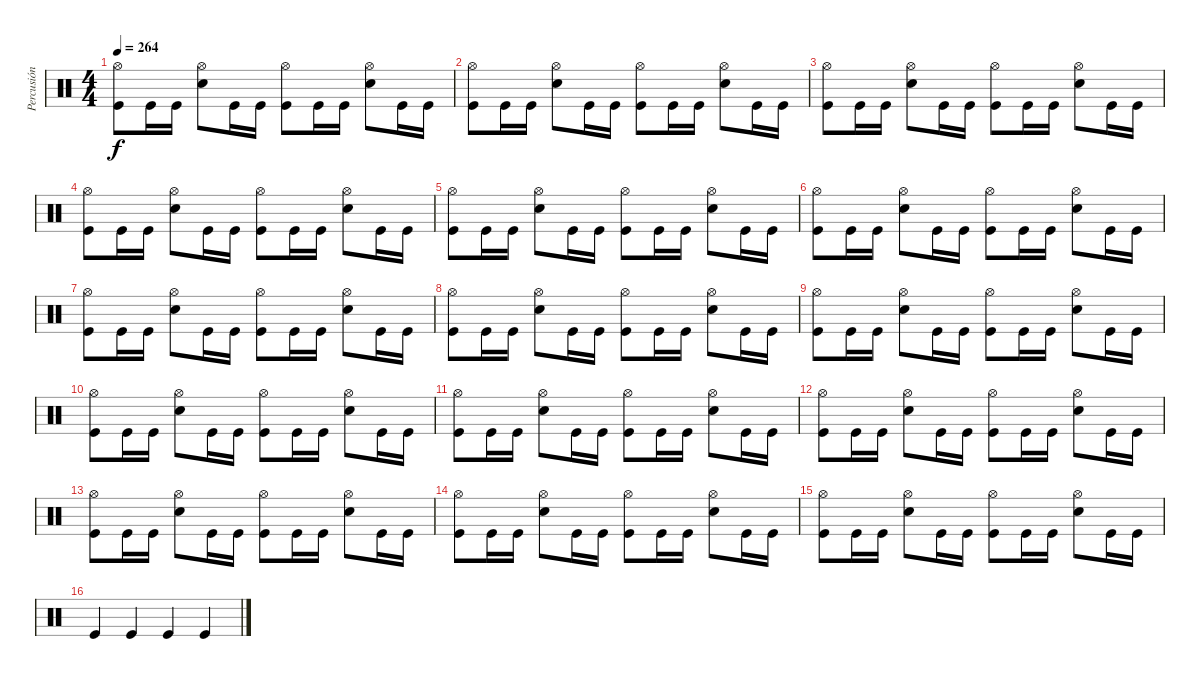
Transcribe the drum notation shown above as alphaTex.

\track ("Percusión" "Percusión") {instrument percussion}
\staff {score}
\articulation defaults
\ts (4 4)
\tempo 264
\clef neutral
\ks c
("Hi-Hat (open)" "Kick (hit)").8{dy f} "Kick (hit)".16 "Kick (hit)".16 ("Hi-Hat (open)" "Snare (hit) 2").8 "Kick (hit)".16 "Kick (hit)".16 ("Hi-Hat (open)" "Kick (hit)").8 "Kick (hit)".16 "Kick (hit)".16 ("Hi-Hat (open)" "Snare (hit) 2").8 "Kick (hit)".16 "Kick (hit)".16 |
("Hi-Hat (open)" "Kick (hit)").8 "Kick (hit)".16 "Kick (hit)".16 ("Hi-Hat (open)" "Snare (hit) 2").8 "Kick (hit)".16 "Kick (hit)".16 ("Hi-Hat (open)" "Kick (hit)").8 "Kick (hit)".16 "Kick (hit)".16 ("Hi-Hat (open)" "Snare (hit) 2").8 "Kick (hit)".16 "Kick (hit)".16 |
("Hi-Hat (open)" "Kick (hit)").8 "Kick (hit)".16 "Kick (hit)".16 ("Hi-Hat (open)" "Snare (hit) 2").8 "Kick (hit)".16 "Kick (hit)".16 ("Hi-Hat (open)" "Kick (hit)").8 "Kick (hit)".16 "Kick (hit)".16 ("Hi-Hat (open)" "Snare (hit) 2").8 "Kick (hit)".16 "Kick (hit)".16 |
("Hi-Hat (open)" "Kick (hit)").8 "Kick (hit)".16 "Kick (hit)".16 ("Hi-Hat (open)" "Snare (hit) 2").8 "Kick (hit)".16 "Kick (hit)".16 ("Hi-Hat (open)" "Kick (hit)").8 "Kick (hit)".16 "Kick (hit)".16 ("Hi-Hat (open)" "Snare (hit) 2").8 "Kick (hit)".16 "Kick (hit)".16 |
("Hi-Hat (open)" "Kick (hit)").8 "Kick (hit)".16 "Kick (hit)".16 ("Hi-Hat (open)" "Snare (hit) 2").8 "Kick (hit)".16 "Kick (hit)".16 ("Hi-Hat (open)" "Kick (hit)").8 "Kick (hit)".16 "Kick (hit)".16 ("Hi-Hat (open)" "Snare (hit) 2").8 "Kick (hit)".16 "Kick (hit)".16 |
("Hi-Hat (open)" "Kick (hit)").8 "Kick (hit)".16 "Kick (hit)".16 ("Hi-Hat (open)" "Snare (hit) 2").8 "Kick (hit)".16 "Kick (hit)".16 ("Hi-Hat (open)" "Kick (hit)").8 "Kick (hit)".16 "Kick (hit)".16 ("Hi-Hat (open)" "Snare (hit) 2").8 "Kick (hit)".16 "Kick (hit)".16 |
("Hi-Hat (open)" "Kick (hit)").8 "Kick (hit)".16 "Kick (hit)".16 ("Hi-Hat (open)" "Snare (hit) 2").8 "Kick (hit)".16 "Kick (hit)".16 ("Hi-Hat (open)" "Kick (hit)").8 "Kick (hit)".16 "Kick (hit)".16 ("Hi-Hat (open)" "Snare (hit) 2").8 "Kick (hit)".16 "Kick (hit)".16 |
("Hi-Hat (open)" "Kick (hit)").8 "Kick (hit)".16 "Kick (hit)".16 ("Hi-Hat (open)" "Snare (hit) 2").8 "Kick (hit)".16 "Kick (hit)".16 ("Hi-Hat (open)" "Kick (hit)").8 "Kick (hit)".16 "Kick (hit)".16 ("Hi-Hat (open)" "Snare (hit) 2").8 "Kick (hit)".16 "Kick (hit)".16 |
("Hi-Hat (open)" "Kick (hit)").8 "Kick (hit)".16 "Kick (hit)".16 ("Hi-Hat (open)" "Snare (hit) 2").8 "Kick (hit)".16 "Kick (hit)".16 ("Hi-Hat (open)" "Kick (hit)").8 "Kick (hit)".16 "Kick (hit)".16 ("Hi-Hat (open)" "Snare (hit) 2").8 "Kick (hit)".16 "Kick (hit)".16 |
("Hi-Hat (open)" "Kick (hit)").8 "Kick (hit)".16 "Kick (hit)".16 ("Hi-Hat (open)" "Snare (hit) 2").8 "Kick (hit)".16 "Kick (hit)".16 ("Hi-Hat (open)" "Kick (hit)").8 "Kick (hit)".16 "Kick (hit)".16 ("Hi-Hat (open)" "Snare (hit) 2").8 "Kick (hit)".16 "Kick (hit)".16 |
("Hi-Hat (open)" "Kick (hit)").8 "Kick (hit)".16 "Kick (hit)".16 ("Hi-Hat (open)" "Snare (hit) 2").8 "Kick (hit)".16 "Kick (hit)".16 ("Hi-Hat (open)" "Kick (hit)").8 "Kick (hit)".16 "Kick (hit)".16 ("Hi-Hat (open)" "Snare (hit) 2").8 "Kick (hit)".16 "Kick (hit)".16 |
("Hi-Hat (open)" "Kick (hit)").8 "Kick (hit)".16 "Kick (hit)".16 ("Hi-Hat (open)" "Snare (hit) 2").8 "Kick (hit)".16 "Kick (hit)".16 ("Hi-Hat (open)" "Kick (hit)").8 "Kick (hit)".16 "Kick (hit)".16 ("Hi-Hat (open)" "Snare (hit) 2").8 "Kick (hit)".16 "Kick (hit)".16 |
("Hi-Hat (open)" "Kick (hit)").8 "Kick (hit)".16 "Kick (hit)".16 ("Hi-Hat (open)" "Snare (hit) 2").8 "Kick (hit)".16 "Kick (hit)".16 ("Hi-Hat (open)" "Kick (hit)").8 "Kick (hit)".16 "Kick (hit)".16 ("Hi-Hat (open)" "Snare (hit) 2").8 "Kick (hit)".16 "Kick (hit)".16 |
("Hi-Hat (open)" "Kick (hit)").8 "Kick (hit)".16 "Kick (hit)".16 ("Hi-Hat (open)" "Snare (hit) 2").8 "Kick (hit)".16 "Kick (hit)".16 ("Hi-Hat (open)" "Kick (hit)").8 "Kick (hit)".16 "Kick (hit)".16 ("Hi-Hat (open)" "Snare (hit) 2").8 "Kick (hit)".16 "Kick (hit)".16 |
("Hi-Hat (open)" "Kick (hit)").8 "Kick (hit)".16 "Kick (hit)".16 ("Hi-Hat (open)" "Snare (hit) 2").8 "Kick (hit)".16 "Kick (hit)".16 ("Hi-Hat (open)" "Kick (hit)").8 "Kick (hit)".16 "Kick (hit)".16 ("Hi-Hat (open)" "Snare (hit) 2").8 "Kick (hit)".16 "Kick (hit)".16 |
"Kick (hit)".4 "Kick (hit)".4 "Kick (hit)".4 "Kick (hit)".4
